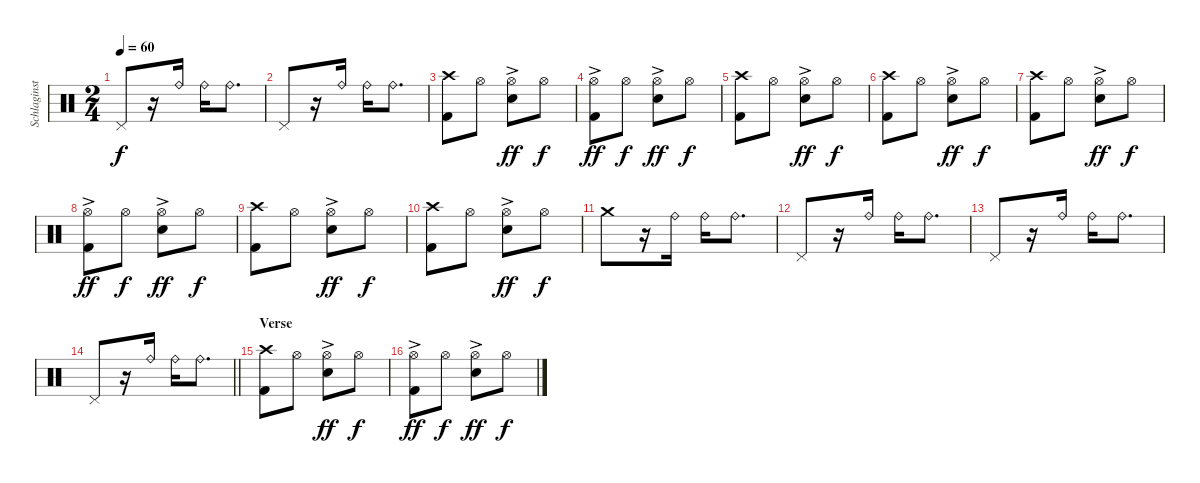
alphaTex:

\track ("Schlaginstrumente - Auswahl" "Schlaginst") {instrument percussion}
\staff {score}
\articulation defaults
\ts (2 4)
\tempo 60
\clef neutral
\ks c "Pedal Hi-Hat (hit)".8{dy f}
r.16 "Ride (bell)".16 "Ride (bell)".16 "Ride (bell)".8{d} |
"Pedal Hi-Hat (hit)".8 r.16 "Ride (bell)".16 "Ride (bell)".16 "Ride (bell)".8{d} |
("Crash high (hit)" "Kick (hit) 2").8 "Hi-Hat (open)".8 ("Hi-Hat (open)"{ac} "Snare (hit) 2").8{dy ff} "Hi-Hat (open)".8{dy f} |
("Hi-Hat (open)"{ac} "Kick (hit) 2").8{dy ff} "Hi-Hat (open)".8{dy f} ("Hi-Hat (open)"{ac} "Snare (hit) 2").8{dy ff} "Hi-Hat (open)".8{dy f} |
("Crash high (hit)" "Kick (hit) 2").8 "Hi-Hat (open)".8 ("Hi-Hat (open)"{ac} "Snare (hit) 2").8{dy ff} "Hi-Hat (open)".8{dy f} |
("Crash high (hit)" "Kick (hit) 2").8 "Hi-Hat (open)".8 ("Hi-Hat (open)"{ac} "Snare (hit) 2").8{dy ff} "Hi-Hat (open)".8{dy f} |
("Crash high (hit)" "Kick (hit) 2").8 "Hi-Hat (open)".8 ("Hi-Hat (open)"{ac} "Snare (hit) 2").8{dy ff} "Hi-Hat (open)".8{dy f} |
("Hi-Hat (open)"{ac} "Kick (hit) 2").8{dy ff} "Hi-Hat (open)".8{dy f} ("Hi-Hat (open)"{ac} "Snare (hit) 2").8{dy ff} "Hi-Hat (open)".8{dy f} |
("Crash high (hit)" "Kick (hit) 2").8 "Hi-Hat (open)".8 ("Hi-Hat (open)"{ac} "Snare (hit) 2").8{dy ff} "Hi-Hat (open)".8{dy f} |
("Crash high (hit)" "Kick (hit) 2").8 "Hi-Hat (open)".8 ("Hi-Hat (open)"{ac} "Snare (hit) 2").8{dy ff} "Hi-Hat (open)".8{dy f} |
"Crash medium (hit)".8 r.16 "Ride (bell)".16 "Ride (bell)".16 "Ride (bell)".8{d} |
"Pedal Hi-Hat (hit)".8 r.16 "Ride (bell)".16 "Ride (bell)".16 "Ride (bell)".8{d} |
"Pedal Hi-Hat (hit)".8 r.16 "Ride (bell)".16 "Ride (bell)".16 "Ride (bell)".8{d} |
\barLineRight lightlight "Pedal Hi-Hat (hit)".8
r.16 "Ride (bell)".16 "Ride (bell)".16 "Ride (bell)".8{d} |
\section ("" "Verse")
("Crash high (hit)" "Kick (hit) 2").8 "Hi-Hat (open)".8 ("Hi-Hat (open)"{ac} "Snare (hit) 2").8{dy ff} "Hi-Hat (open)".8{dy f} |
("Hi-Hat (open)"{ac} "Kick (hit) 2").8{dy ff} "Hi-Hat (open)".8{dy f} ("Hi-Hat (open)"{ac} "Snare (hit) 2").8{dy ff} "Hi-Hat (open)".8{dy f}
